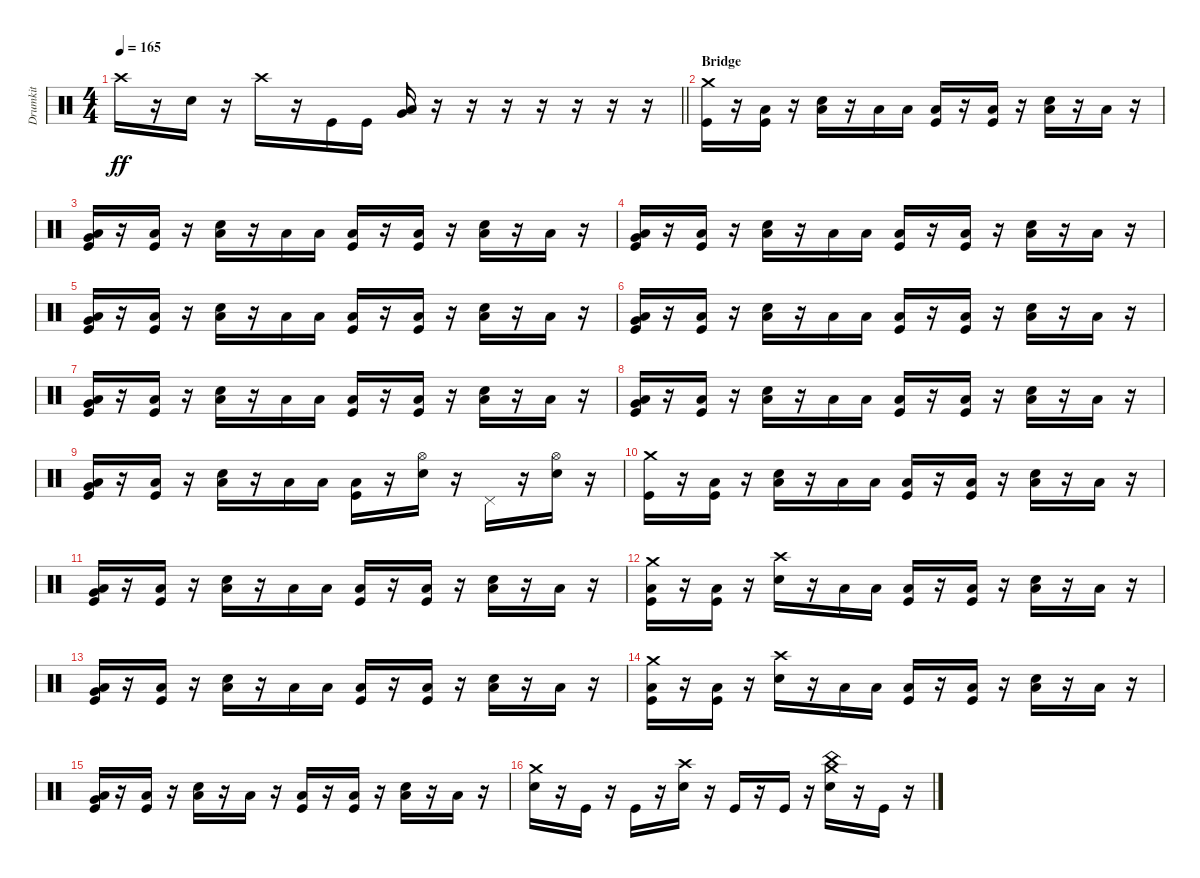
\track ("Drumkit" "Drumkit") {instrument percussion}
\staff {score}
\articulation defaults
\ts (4 4)
\tempo 165
\clef neutral
\barLineRight lightlight
\ks c "Crash high (hit)".16{dy ff}
r.16 "Snare (hit) 2".16 r.16 "Crash high (hit)".16 r.16 "Kick (hit)".16 "Kick (hit)".16 ("Very Low Tom (hit)" "Low Floor Tom (hit)").16 r.16 r.16 r.16 r.16 r.16 r.16 r.16 |
\section ("" "Bridge")
("Crash medium (hit)" "Kick (hit)").16 r.16 ("Low Floor Tom (hit)" "Kick (hit)").16 r.16 ("Low Floor Tom (hit)" "Snare (hit) 2").16 r.16 "Low Floor Tom (hit)".16 "Low Tom (hit)".16 ("Low Floor Tom (hit)" "Kick (hit)").16 r.16 ("Low Floor Tom (hit)" "Kick (hit)").16 r.16 ("Low Floor Tom (hit)" "Snare (hit) 2").16 r.16 "Low Floor Tom (hit)".16 r.16 |
("Very Low Tom (hit)" "Low Floor Tom (hit)" "Kick (hit)").16 r.16 ("Low Floor Tom (hit)" "Kick (hit)").16 r.16 ("Low Floor Tom (hit)" "Snare (hit) 2").16 r.16 "Low Floor Tom (hit)".16 "Low Tom (hit)".16 ("Low Floor Tom (hit)" "Kick (hit)").16 r.16 ("Low Floor Tom (hit)" "Kick (hit)").16 r.16 ("Low Floor Tom (hit)" "Snare (hit) 2").16 r.16 "Low Floor Tom (hit)".16 r.16 |
("Very Low Tom (hit)" "Low Floor Tom (hit)" "Kick (hit)").16 r.16 ("Low Floor Tom (hit)" "Kick (hit)").16 r.16 ("Low Floor Tom (hit)" "Snare (hit) 2").16 r.16 "Low Floor Tom (hit)".16 "Low Tom (hit)".16 ("Low Floor Tom (hit)" "Kick (hit)").16 r.16 ("Low Floor Tom (hit)" "Kick (hit)").16 r.16 ("Low Floor Tom (hit)" "Snare (hit) 2").16 r.16 "Low Floor Tom (hit)".16 r.16 |
("Very Low Tom (hit)" "Low Floor Tom (hit)" "Kick (hit)").16 r.16 ("Low Floor Tom (hit)" "Kick (hit)").16 r.16 ("Low Floor Tom (hit)" "Snare (hit) 2").16 r.16 "Low Floor Tom (hit)".16 "Low Tom (hit)".16 ("Low Floor Tom (hit)" "Kick (hit)").16 r.16 ("Low Floor Tom (hit)" "Kick (hit)").16 r.16 ("Low Floor Tom (hit)" "Snare (hit) 2").16 r.16 "Low Floor Tom (hit)".16 r.16 |
("Very Low Tom (hit)" "Low Floor Tom (hit)" "Kick (hit)").16 r.16 ("Low Floor Tom (hit)" "Kick (hit)").16 r.16 ("Low Floor Tom (hit)" "Snare (hit) 2").16 r.16 "Low Floor Tom (hit)".16 "Low Tom (hit)".16 ("Low Floor Tom (hit)" "Kick (hit)").16 r.16 ("Low Floor Tom (hit)" "Kick (hit)").16 r.16 ("Low Floor Tom (hit)" "Snare (hit) 2").16 r.16 "Low Floor Tom (hit)".16 r.16 |
("Very Low Tom (hit)" "Low Floor Tom (hit)" "Kick (hit)").16 r.16 ("Low Floor Tom (hit)" "Kick (hit)").16 r.16 ("Low Floor Tom (hit)" "Snare (hit) 2").16 r.16 "Low Floor Tom (hit)".16 "Low Tom (hit)".16 ("Low Floor Tom (hit)" "Kick (hit)").16 r.16 ("Low Floor Tom (hit)" "Kick (hit)").16 r.16 ("Low Floor Tom (hit)" "Snare (hit) 2").16 r.16 "Low Floor Tom (hit)".16 r.16 |
("Very Low Tom (hit)" "Low Floor Tom (hit)" "Kick (hit)").16 r.16 ("Low Floor Tom (hit)" "Kick (hit)").16 r.16 ("Low Floor Tom (hit)" "Snare (hit) 2").16 r.16 "Low Floor Tom (hit)".16 "Low Tom (hit)".16 ("Low Floor Tom (hit)" "Kick (hit)").16 r.16 ("Low Floor Tom (hit)" "Kick (hit)").16 r.16 ("Low Floor Tom (hit)" "Snare (hit) 2").16 r.16 "Low Floor Tom (hit)".16 r.16 |
("Very Low Tom (hit)" "Low Floor Tom (hit)" "Kick (hit)").16 r.16 ("Low Floor Tom (hit)" "Kick (hit)").16 r.16 ("Low Floor Tom (hit)" "Snare (hit) 2").16 r.16 "Low Floor Tom (hit)".16 "Low Tom (hit)".16 ("Low Floor Tom (hit)" "Kick (hit)").16 r.16 ("Hi-Hat (open)" "Snare (hit) 2").16 r.16 "Pedal Hi-Hat (hit)".16 r.16 ("Hi-Hat (open)" "Snare (hit) 2").16 r.16 |
("Crash medium (hit)" "Kick (hit)").16 r.16 ("Low Floor Tom (hit)" "Kick (hit)").16 r.16 ("Low Floor Tom (hit)" "Snare (hit) 2").16 r.16 "Low Floor Tom (hit)".16 "Low Tom (hit)".16 ("Low Floor Tom (hit)" "Kick (hit)").16 r.16 ("Low Floor Tom (hit)" "Kick (hit)").16 r.16 ("Low Floor Tom (hit)" "Snare (hit) 2").16 r.16 "Low Floor Tom (hit)".16 r.16 |
("Very Low Tom (hit)" "Low Floor Tom (hit)" "Kick (hit)").16 r.16 ("Low Floor Tom (hit)" "Kick (hit)").16 r.16 ("Low Floor Tom (hit)" "Snare (hit) 2").16 r.16 "Low Floor Tom (hit)".16 "Low Tom (hit)".16 ("Low Floor Tom (hit)" "Kick (hit)").16 r.16 ("Low Floor Tom (hit)" "Kick (hit)").16 r.16 ("Low Floor Tom (hit)" "Snare (hit) 2").16 r.16 "Low Floor Tom (hit)".16 r.16 |
("Crash medium (hit)" "Low Floor Tom (hit)" "Kick (hit)").16 r.16 ("Low Floor Tom (hit)" "Kick (hit)").16 r.16 ("Crash high (hit)" "Snare (hit) 2").16 r.16 "Low Floor Tom (hit)".16 "Low Tom (hit)".16 ("Low Floor Tom (hit)" "Kick (hit)").16 r.16 ("Low Floor Tom (hit)" "Kick (hit)").16 r.16 ("Low Floor Tom (hit)" "Snare (hit) 2").16 r.16 "Low Floor Tom (hit)".16 r.16 |
("Very Low Tom (hit)" "Low Floor Tom (hit)" "Kick (hit)").16 r.16 ("Low Floor Tom (hit)" "Kick (hit)").16 r.16 ("Low Floor Tom (hit)" "Snare (hit) 2").16 r.16 "Low Floor Tom (hit)".16 "Low Tom (hit)".16 ("Low Floor Tom (hit)" "Kick (hit)").16 r.16 ("Low Floor Tom (hit)" "Kick (hit)").16 r.16 ("Low Floor Tom (hit)" "Snare (hit) 2").16 r.16 "Low Floor Tom (hit)".16 r.16 |
("Crash medium (hit)" "Low Floor Tom (hit)" "Kick (hit)").16 r.16 ("Low Floor Tom (hit)" "Kick (hit)").16 r.16 ("Crash high (hit)" "Snare (hit) 2").16 r.16 "Low Floor Tom (hit)".16 "Low Tom (hit)".16 ("Low Floor Tom (hit)" "Kick (hit)").16 r.16 ("Low Floor Tom (hit)" "Kick (hit)").16 r.16 ("Low Floor Tom (hit)" "Snare (hit) 2").16 r.16 "Low Floor Tom (hit)".16 r.16 |
("Very Low Tom (hit)" "Low Floor Tom (hit)" "Kick (hit)").16 r.16 ("Low Floor Tom (hit)" "Kick (hit)").16 r.16 ("Low Floor Tom (hit)" "Snare (hit) 2").16 r.16 "Low Floor Tom (hit)".16 r.16 ("Low Floor Tom (hit)" "Kick (hit)").16 r.16 ("Low Floor Tom (hit)" "Kick (hit)").16 r.16 ("Low Floor Tom (hit)" "Snare (hit) 2").16 r.16 "Low Floor Tom (hit)".16 r.16 |
("Crash medium (hit)" "Snare (hit) 2").16 r.16 "Kick (hit)".16 r.16 "Kick (hit)".16 r.16 ("Crash high (hit)" "Snare (hit) 2").16 r.16 "Kick (hit)".16 r.16 "Kick (hit)".16 r.16 ("China (hit)" "Crash medium (hit)" "Snare (hit) 2").16 r.16 "Kick (hit)".16 r.16
